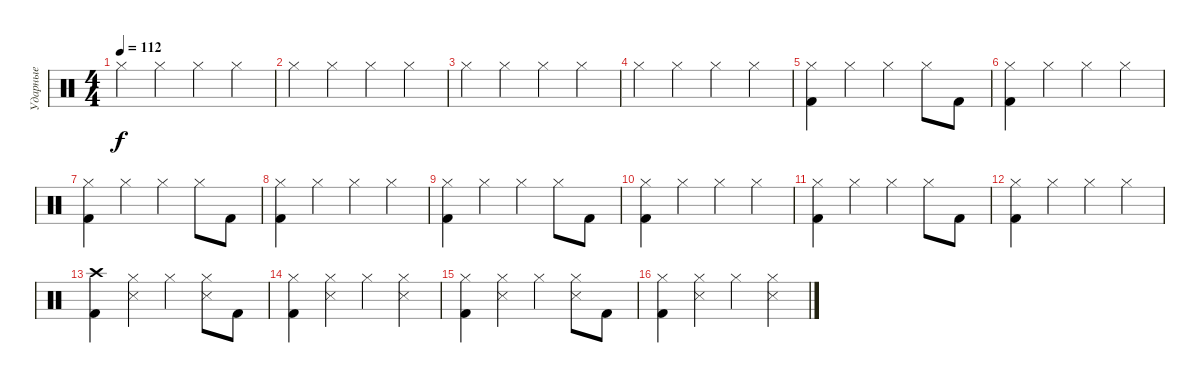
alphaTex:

\track ("Ударные" "Ударные") {instrument percussion}
\staff {score}
\articulation defaults
\ts (4 4)
\tempo 112
\clef neutral
\ks c "Hi-Hat (closed)".4{dy f} "Hi-Hat (closed)".4 "Hi-Hat (closed)".4 "Hi-Hat (closed)".4
|
"Hi-Hat (closed)".4 "Hi-Hat (closed)".4 "Hi-Hat (closed)".4 "Hi-Hat (closed)".4 |
"Hi-Hat (closed)".4 "Hi-Hat (closed)".4 "Hi-Hat (closed)".4 "Hi-Hat (closed)".4 |
"Hi-Hat (closed)".4 "Hi-Hat (closed)".4 "Hi-Hat (closed)".4 "Hi-Hat (closed)".4 |
("Hi-Hat (closed)" "Kick (hit) 2").4 "Hi-Hat (closed)".4 "Hi-Hat (closed)".4 "Hi-Hat (closed)".8 "Kick (hit) 2".8 |
("Hi-Hat (closed)" "Kick (hit) 2").4 "Hi-Hat (closed)".4 "Hi-Hat (closed)".4 "Hi-Hat (closed)".4 |
("Hi-Hat (closed)" "Kick (hit) 2").4 "Hi-Hat (closed)".4 "Hi-Hat (closed)".4 "Hi-Hat (closed)".8 "Kick (hit) 2".8 |
("Hi-Hat (closed)" "Kick (hit) 2").4 "Hi-Hat (closed)".4 "Hi-Hat (closed)".4 "Hi-Hat (closed)".4 |
("Hi-Hat (closed)" "Kick (hit) 2").4 "Hi-Hat (closed)".4 "Hi-Hat (closed)".4 "Hi-Hat (closed)".8 "Kick (hit) 2".8 |
("Hi-Hat (closed)" "Kick (hit) 2").4 "Hi-Hat (closed)".4 "Hi-Hat (closed)".4 "Hi-Hat (closed)".4 |
("Hi-Hat (closed)" "Kick (hit) 2").4 "Hi-Hat (closed)".4 "Hi-Hat (closed)".4 "Hi-Hat (closed)".8 "Kick (hit) 2".8 |
("Hi-Hat (closed)" "Kick (hit) 2").4 "Hi-Hat (closed)".4 "Hi-Hat (closed)".4 "Hi-Hat (closed)".4 |
("Crash high (hit)" "Kick (hit) 2").4 ("Hi-Hat (closed)" "Snare (side stick) 3").4 "Hi-Hat (closed)".4 ("Hi-Hat (closed)" "Snare (side stick) 3").8 "Kick (hit) 2".8 |
("Hi-Hat (closed)" "Kick (hit) 2").4 ("Hi-Hat (closed)" "Snare (side stick) 3").4 "Hi-Hat (closed)".4 ("Hi-Hat (closed)" "Snare (side stick) 3").4 |
("Hi-Hat (closed)" "Kick (hit) 2").4 ("Hi-Hat (closed)" "Snare (side stick) 3").4 "Hi-Hat (closed)".4 ("Hi-Hat (closed)" "Snare (side stick) 3").8 "Kick (hit) 2".8 |
("Hi-Hat (closed)" "Kick (hit) 2").4 ("Hi-Hat (closed)" "Snare (side stick) 3").4 "Hi-Hat (closed)".4 ("Hi-Hat (closed)" "Snare (side stick) 3").4
